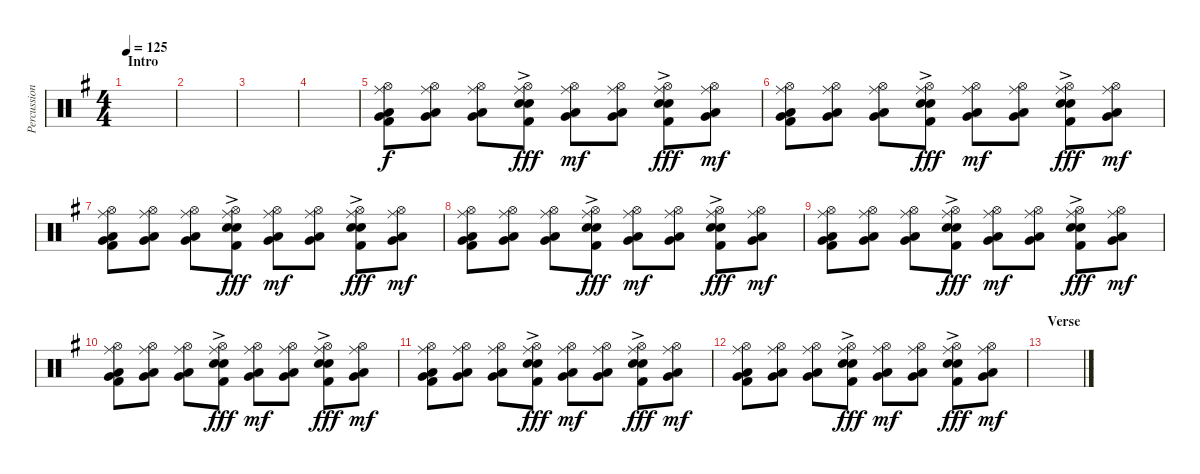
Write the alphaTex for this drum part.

\track ("Percussion" "Percussion") {instrument percussion}
\staff {score}
\articulation defaults
\ts (4 4)
\section ("" "Intro")
\tempo 125
\clef neutral
\ks g
|
|
|
|
("Hi-Hat (open)" "Ride (middle)" "Low Tom (hit)" "Very Low Tom (hit)" "Kick (hit) 2").8 ("Hi-Hat (open)" "Ride (middle)" "Low Tom (hit)" "Very Low Tom (hit)").8 ("Hi-Hat (open)" "Ride (middle)" "Low Tom (hit)" "Very Low Tom (hit)").8 ("Hi-Hat (open)" "Ride (middle)" "Electric Snare (hit)"{ac} "Snare (hit) 2"{ac} "Kick (hit) 2").8{dy fff} ("Hi-Hat (open)" "Ride (middle)" "Low Tom (hit)" "Very Low Tom (hit)").8{dy mf} ("Hi-Hat (open)" "Ride (middle)" "Low Tom (hit)" "Very Low Tom (hit)").8 ("Hi-Hat (open)" "Ride (middle)" "Electric Snare (hit)"{ac} "Snare (hit) 2"{ac} "Kick (hit) 2").8{dy fff} ("Hi-Hat (open)" "Ride (middle)" "Low Tom (hit)" "Very Low Tom (hit)").8{dy mf} |
("Hi-Hat (open)" "Ride (middle)" "Low Tom (hit)" "Very Low Tom (hit)" "Kick (hit) 2").8 ("Hi-Hat (open)" "Ride (middle)" "Low Tom (hit)" "Very Low Tom (hit)").8 ("Hi-Hat (open)" "Ride (middle)" "Low Tom (hit)" "Very Low Tom (hit)").8 ("Hi-Hat (open)" "Ride (middle)" "Electric Snare (hit)"{ac} "Snare (hit) 2"{ac} "Kick (hit) 2").8{dy fff} ("Hi-Hat (open)" "Ride (middle)" "Low Tom (hit)" "Very Low Tom (hit)").8{dy mf} ("Hi-Hat (open)" "Ride (middle)" "Low Tom (hit)" "Very Low Tom (hit)").8 ("Hi-Hat (open)" "Ride (middle)" "Electric Snare (hit)"{ac} "Snare (hit) 2"{ac} "Kick (hit) 2").8{dy fff} ("Hi-Hat (open)" "Ride (middle)" "Low Tom (hit)" "Very Low Tom (hit)").8{dy mf} |
("Hi-Hat (open)" "Ride (middle)" "Low Tom (hit)" "Very Low Tom (hit)" "Kick (hit) 2").8 ("Hi-Hat (open)" "Ride (middle)" "Low Tom (hit)" "Very Low Tom (hit)").8 ("Hi-Hat (open)" "Ride (middle)" "Low Tom (hit)" "Very Low Tom (hit)").8 ("Hi-Hat (open)" "Ride (middle)" "Electric Snare (hit)"{ac} "Snare (hit) 2"{ac} "Kick (hit) 2").8{dy fff} ("Hi-Hat (open)" "Ride (middle)" "Low Tom (hit)" "Very Low Tom (hit)").8{dy mf} ("Hi-Hat (open)" "Ride (middle)" "Low Tom (hit)" "Very Low Tom (hit)").8 ("Hi-Hat (open)" "Ride (middle)" "Electric Snare (hit)"{ac} "Snare (hit) 2"{ac} "Kick (hit) 2").8{dy fff} ("Hi-Hat (open)" "Ride (middle)" "Low Tom (hit)" "Very Low Tom (hit)").8{dy mf} |
("Hi-Hat (open)" "Ride (middle)" "Low Tom (hit)" "Very Low Tom (hit)" "Kick (hit) 2").8 ("Hi-Hat (open)" "Ride (middle)" "Low Tom (hit)" "Very Low Tom (hit)").8 ("Hi-Hat (open)" "Ride (middle)" "Low Tom (hit)" "Very Low Tom (hit)").8 ("Hi-Hat (open)" "Ride (middle)" "Electric Snare (hit)"{ac} "Snare (hit) 2"{ac} "Kick (hit) 2").8{dy fff} ("Hi-Hat (open)" "Ride (middle)" "Low Tom (hit)" "Very Low Tom (hit)").8{dy mf} ("Hi-Hat (open)" "Ride (middle)" "Low Tom (hit)" "Very Low Tom (hit)").8 ("Hi-Hat (open)" "Ride (middle)" "Electric Snare (hit)"{ac} "Snare (hit) 2"{ac} "Kick (hit) 2").8{dy fff} ("Hi-Hat (open)" "Ride (middle)" "Low Tom (hit)" "Very Low Tom (hit)").8{dy mf} |
("Hi-Hat (open)" "Ride (middle)" "Low Tom (hit)" "Very Low Tom (hit)" "Kick (hit) 2").8 ("Hi-Hat (open)" "Ride (middle)" "Low Tom (hit)" "Very Low Tom (hit)").8 ("Hi-Hat (open)" "Ride (middle)" "Low Tom (hit)" "Very Low Tom (hit)").8 ("Hi-Hat (open)" "Ride (middle)" "Electric Snare (hit)"{ac} "Snare (hit) 2"{ac} "Kick (hit) 2").8{dy fff} ("Hi-Hat (open)" "Ride (middle)" "Low Tom (hit)" "Very Low Tom (hit)").8{dy mf} ("Hi-Hat (open)" "Ride (middle)" "Low Tom (hit)" "Very Low Tom (hit)").8 ("Hi-Hat (open)" "Ride (middle)" "Electric Snare (hit)"{ac} "Snare (hit) 2"{ac} "Kick (hit) 2").8{dy fff} ("Hi-Hat (open)" "Ride (middle)" "Low Tom (hit)" "Very Low Tom (hit)").8{dy mf} |
("Hi-Hat (open)" "Ride (middle)" "Low Tom (hit)" "Very Low Tom (hit)" "Kick (hit) 2").8 ("Hi-Hat (open)" "Ride (middle)" "Low Tom (hit)" "Very Low Tom (hit)").8 ("Hi-Hat (open)" "Ride (middle)" "Low Tom (hit)" "Very Low Tom (hit)").8 ("Hi-Hat (open)" "Ride (middle)" "Electric Snare (hit)"{ac} "Snare (hit) 2"{ac} "Kick (hit) 2").8{dy fff} ("Hi-Hat (open)" "Ride (middle)" "Low Tom (hit)" "Very Low Tom (hit)").8{dy mf} ("Hi-Hat (open)" "Ride (middle)" "Low Tom (hit)" "Very Low Tom (hit)").8 ("Hi-Hat (open)" "Ride (middle)" "Electric Snare (hit)"{ac} "Snare (hit) 2"{ac} "Kick (hit) 2").8{dy fff} ("Hi-Hat (open)" "Ride (middle)" "Low Tom (hit)" "Very Low Tom (hit)").8{dy mf} |
("Hi-Hat (open)" "Ride (middle)" "Low Tom (hit)" "Very Low Tom (hit)" "Kick (hit) 2").8 ("Hi-Hat (open)" "Ride (middle)" "Low Tom (hit)" "Very Low Tom (hit)").8 ("Hi-Hat (open)" "Ride (middle)" "Low Tom (hit)" "Very Low Tom (hit)").8 ("Hi-Hat (open)" "Ride (middle)" "Electric Snare (hit)"{ac} "Snare (hit) 2"{ac} "Kick (hit) 2").8{dy fff} ("Hi-Hat (open)" "Ride (middle)" "Low Tom (hit)" "Very Low Tom (hit)").8{dy mf} ("Hi-Hat (open)" "Ride (middle)" "Low Tom (hit)" "Very Low Tom (hit)").8 ("Hi-Hat (open)" "Ride (middle)" "Electric Snare (hit)"{ac} "Snare (hit) 2"{ac} "Kick (hit) 2").8{dy fff} ("Hi-Hat (open)" "Ride (middle)" "Low Tom (hit)" "Very Low Tom (hit)").8{dy mf} |
("Hi-Hat (open)" "Ride (middle)" "Low Tom (hit)" "Very Low Tom (hit)" "Kick (hit) 2").8 ("Hi-Hat (open)" "Ride (middle)" "Low Tom (hit)" "Very Low Tom (hit)").8 ("Hi-Hat (open)" "Ride (middle)" "Low Tom (hit)" "Very Low Tom (hit)").8 ("Hi-Hat (open)" "Ride (middle)" "Electric Snare (hit)"{ac} "Snare (hit) 2"{ac} "Kick (hit) 2").8{dy fff} ("Hi-Hat (open)" "Ride (middle)" "Low Tom (hit)" "Very Low Tom (hit)").8{dy mf} ("Hi-Hat (open)" "Ride (middle)" "Low Tom (hit)" "Very Low Tom (hit)").8 ("Hi-Hat (open)" "Ride (middle)" "Electric Snare (hit)"{ac} "Snare (hit) 2"{ac} "Kick (hit) 2").8{dy fff} ("Hi-Hat (open)" "Ride (middle)" "Low Tom (hit)" "Very Low Tom (hit)").8{dy mf} |
\section ("" "Verse")
